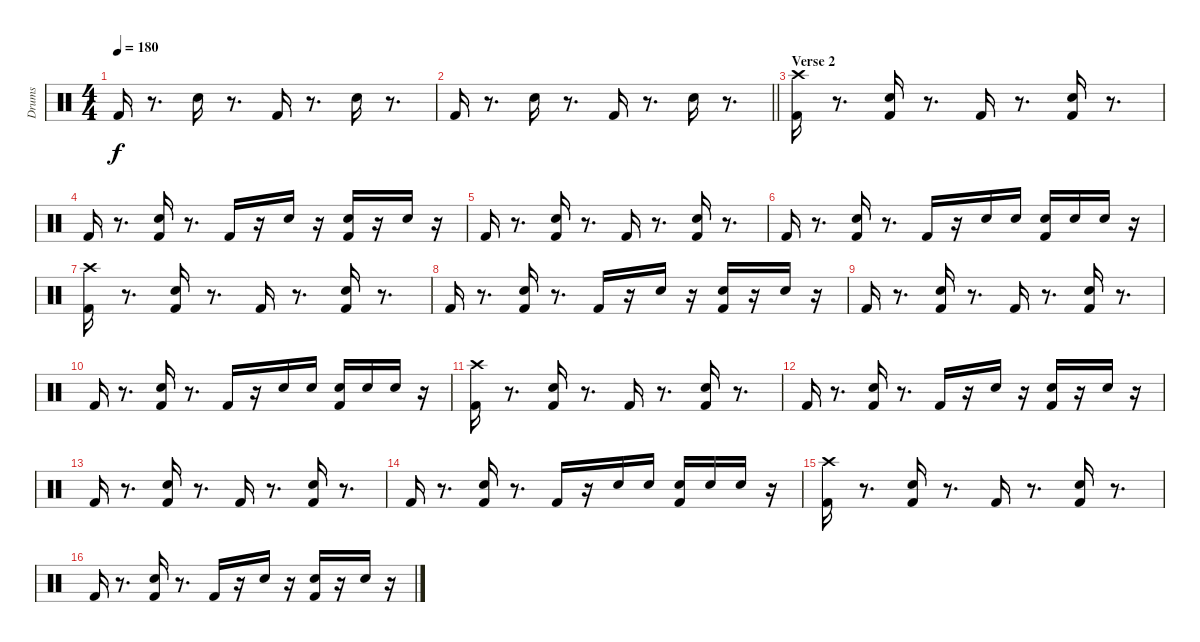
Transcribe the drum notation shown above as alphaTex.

\track ("Drums" "Drums") {instrument percussion}
\staff {score}
\articulation defaults
\ts (4 4)
\tempo 180
\clef neutral
\ks c "Kick (hit) 2".16{dy f}
r.8{d} "Snare (hit) 2".16 r.8{d} "Kick (hit) 2".16 r.8{d} "Snare (hit) 2".16 r.8{d} |
\barLineRight lightlight "Kick (hit) 2".16
r.8{d} "Snare (hit) 2".16 r.8{d} "Kick (hit) 2".16 r.8{d} "Snare (hit) 2".16 r.8{d} |
\section ("" "Verse 2")
("Kick (hit) 2" "Crash high (hit)").16 r.8{d} ("Kick (hit) 2" "Snare (hit) 2").16 r.8{d} "Kick (hit) 2".16 r.8{d} ("Kick (hit) 2" "Snare (hit) 2").16 r.8{d} |
"Kick (hit) 2".16 r.8{d} ("Kick (hit) 2" "Snare (hit) 2").16 r.8{d} "Kick (hit) 2".16 r.16 "Snare (hit) 2".16 r.16 ("Kick (hit) 2" "Snare (hit) 2").16 r.16 "Snare (hit) 2".16 r.16 |
"Kick (hit) 2".16 r.8{d} ("Kick (hit) 2" "Snare (hit) 2").16 r.8{d} "Kick (hit) 2".16 r.8{d} ("Kick (hit) 2" "Snare (hit) 2").16 r.8{d} |
"Kick (hit) 2".16 r.8{d} ("Kick (hit) 2" "Snare (hit) 2").16 r.8{d} "Kick (hit) 2".16 r.16 "Snare (hit) 2".16 "Snare (hit) 2".16 ("Kick (hit) 2" "Snare (hit) 2").16 "Snare (hit) 2".16 "Snare (hit) 2".16 r.16 |
("Kick (hit) 2" "Crash high (hit)").16 r.8{d} ("Kick (hit) 2" "Snare (hit) 2").16 r.8{d} "Kick (hit) 2".16 r.8{d} ("Kick (hit) 2" "Snare (hit) 2").16 r.8{d} |
"Kick (hit) 2".16 r.8{d} ("Kick (hit) 2" "Snare (hit) 2").16 r.8{d} "Kick (hit) 2".16 r.16 "Snare (hit) 2".16 r.16 ("Kick (hit) 2" "Snare (hit) 2").16 r.16 "Snare (hit) 2".16 r.16 |
"Kick (hit) 2".16 r.8{d} ("Kick (hit) 2" "Snare (hit) 2").16 r.8{d} "Kick (hit) 2".16 r.8{d} ("Kick (hit) 2" "Snare (hit) 2").16 r.8{d} |
"Kick (hit) 2".16 r.8{d} ("Kick (hit) 2" "Snare (hit) 2").16 r.8{d} "Kick (hit) 2".16 r.16 "Snare (hit) 2".16 "Snare (hit) 2".16 ("Kick (hit) 2" "Snare (hit) 2").16 "Snare (hit) 2".16 "Snare (hit) 2".16 r.16 |
("Kick (hit) 2" "Crash high (hit)").16 r.8{d} ("Kick (hit) 2" "Snare (hit) 2").16 r.8{d} "Kick (hit) 2".16 r.8{d} ("Kick (hit) 2" "Snare (hit) 2").16 r.8{d} |
"Kick (hit) 2".16 r.8{d} ("Kick (hit) 2" "Snare (hit) 2").16 r.8{d} "Kick (hit) 2".16 r.16 "Snare (hit) 2".16 r.16 ("Kick (hit) 2" "Snare (hit) 2").16 r.16 "Snare (hit) 2".16 r.16 |
"Kick (hit) 2".16 r.8{d} ("Kick (hit) 2" "Snare (hit) 2").16 r.8{d} "Kick (hit) 2".16 r.8{d} ("Kick (hit) 2" "Snare (hit) 2").16 r.8{d} |
"Kick (hit) 2".16 r.8{d} ("Kick (hit) 2" "Snare (hit) 2").16 r.8{d} "Kick (hit) 2".16 r.16 "Snare (hit) 2".16 "Snare (hit) 2".16 ("Kick (hit) 2" "Snare (hit) 2").16 "Snare (hit) 2".16 "Snare (hit) 2".16 r.16 |
("Kick (hit) 2" "Crash high (hit)").16 r.8{d} ("Kick (hit) 2" "Snare (hit) 2").16 r.8{d} "Kick (hit) 2".16 r.8{d} ("Kick (hit) 2" "Snare (hit) 2").16 r.8{d} |
"Kick (hit) 2".16 r.8{d} ("Kick (hit) 2" "Snare (hit) 2").16 r.8{d} "Kick (hit) 2".16 r.16 "Snare (hit) 2".16 r.16 ("Kick (hit) 2" "Snare (hit) 2").16 r.16 "Snare (hit) 2".16 r.16
